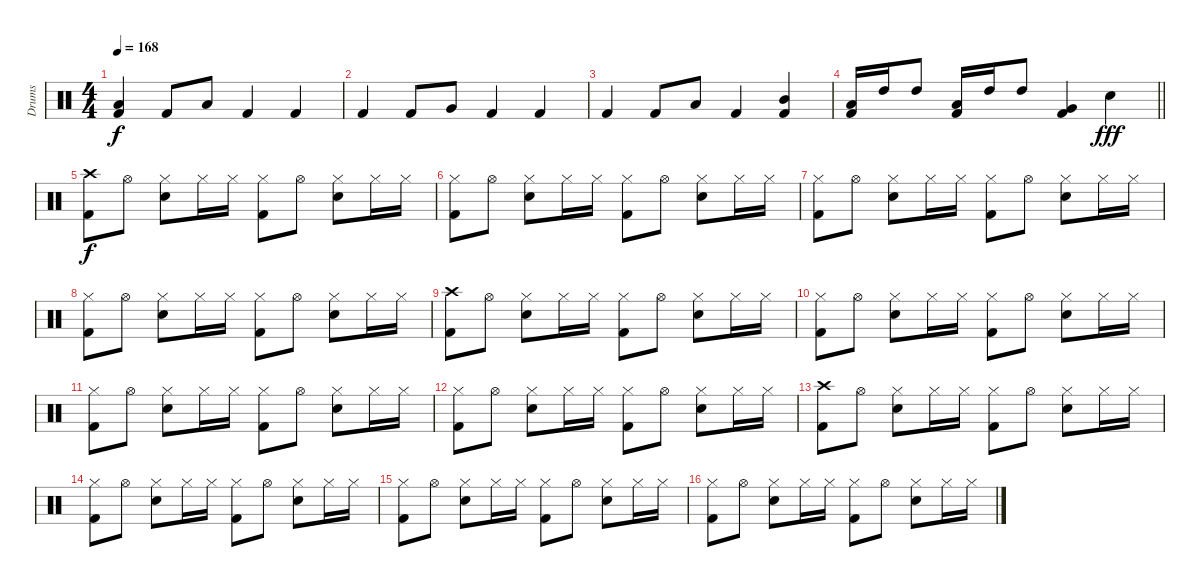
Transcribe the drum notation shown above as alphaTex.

\track ("Drums" "Drums") {instrument percussion}
\staff {score}
\articulation defaults
\ts (4 4)
\tempo 168
\clef neutral
\ks c
("Low Tom (hit)" "Kick (hit) 2").4{dy f} "Kick (hit) 2".8 "Low Tom (hit)".8 "Kick (hit) 2".4 "Kick (hit) 2".4 |
"Kick (hit) 2".4 "Kick (hit) 2".8 "Very Low Tom (hit)".8 "Kick (hit) 2".4 "Kick (hit) 2".4 |
"Kick (hit) 2".4 "Kick (hit) 2".8 "Low Tom (hit)".8 "Kick (hit) 2".4 ("Mid Tom (hit)" "Kick (hit) 2").4 |
\barLineRight lightlight
("Low Tom (hit)" "Kick (hit) 2").16 "High Tom (hit)".16 "High Tom (hit)".8 ("Low Tom (hit)" "Kick (hit) 2").16 "High Tom (hit)".16 "High Tom (hit)".8 ("Very Low Tom (hit)" "Kick (hit) 2").4 "Electric Snare (hit)".4{dy fff} |
("Crash high (hit)" "Kick (hit) 2").8{dy f} "Hi-Hat (open)".8 ("Hi-Hat (closed)" "Electric Snare (hit)").8 "Hi-Hat (closed)".16 "Hi-Hat (closed)".16 ("Hi-Hat (closed)" "Kick (hit) 2").8 "Hi-Hat (open)".8 ("Hi-Hat (closed)" "Electric Snare (hit)").8 "Hi-Hat (closed)".16 "Hi-Hat (closed)".16 |
("Hi-Hat (closed)" "Kick (hit) 2").8 "Hi-Hat (open)".8 ("Hi-Hat (closed)" "Electric Snare (hit)").8 "Hi-Hat (closed)".16 "Hi-Hat (closed)".16 ("Hi-Hat (closed)" "Kick (hit) 2").8 "Hi-Hat (open)".8 ("Hi-Hat (closed)" "Electric Snare (hit)").8 "Hi-Hat (closed)".16 "Hi-Hat (closed)".16 |
("Hi-Hat (closed)" "Kick (hit) 2").8 "Hi-Hat (open)".8 ("Hi-Hat (closed)" "Electric Snare (hit)").8 "Hi-Hat (closed)".16 "Hi-Hat (closed)".16 ("Hi-Hat (closed)" "Kick (hit) 2").8 "Hi-Hat (open)".8 ("Hi-Hat (closed)" "Electric Snare (hit)").8 "Hi-Hat (closed)".16 "Hi-Hat (closed)".16 |
("Hi-Hat (closed)" "Kick (hit) 2").8 "Hi-Hat (open)".8 ("Hi-Hat (closed)" "Electric Snare (hit)").8 "Hi-Hat (closed)".16 "Hi-Hat (closed)".16 ("Hi-Hat (closed)" "Kick (hit) 2").8 "Hi-Hat (open)".8 ("Hi-Hat (closed)" "Electric Snare (hit)").8 "Hi-Hat (closed)".16 "Hi-Hat (closed)".16 |
("Crash high (hit)" "Kick (hit) 2").8 "Hi-Hat (open)".8 ("Hi-Hat (closed)" "Electric Snare (hit)").8 "Hi-Hat (closed)".16 "Hi-Hat (closed)".16 ("Hi-Hat (closed)" "Kick (hit) 2").8 "Hi-Hat (open)".8 ("Hi-Hat (closed)" "Electric Snare (hit)").8 "Hi-Hat (closed)".16 "Hi-Hat (closed)".16 |
("Hi-Hat (closed)" "Kick (hit) 2").8 "Hi-Hat (open)".8 ("Hi-Hat (closed)" "Electric Snare (hit)").8 "Hi-Hat (closed)".16 "Hi-Hat (closed)".16 ("Hi-Hat (closed)" "Kick (hit) 2").8 "Hi-Hat (open)".8 ("Hi-Hat (closed)" "Electric Snare (hit)").8 "Hi-Hat (closed)".16 "Hi-Hat (closed)".16 |
("Hi-Hat (closed)" "Kick (hit) 2").8 "Hi-Hat (open)".8 ("Hi-Hat (closed)" "Electric Snare (hit)").8 "Hi-Hat (closed)".16 "Hi-Hat (closed)".16 ("Hi-Hat (closed)" "Kick (hit) 2").8 "Hi-Hat (open)".8 ("Hi-Hat (closed)" "Electric Snare (hit)").8 "Hi-Hat (closed)".16 "Hi-Hat (closed)".16 |
("Hi-Hat (closed)" "Kick (hit) 2").8 "Hi-Hat (open)".8 ("Hi-Hat (closed)" "Electric Snare (hit)").8 "Hi-Hat (closed)".16 "Hi-Hat (closed)".16 ("Hi-Hat (closed)" "Kick (hit) 2").8 "Hi-Hat (open)".8 ("Hi-Hat (closed)" "Electric Snare (hit)").8 "Hi-Hat (closed)".16 "Hi-Hat (closed)".16 |
("Crash high (hit)" "Kick (hit) 2").8 "Hi-Hat (open)".8 ("Hi-Hat (closed)" "Electric Snare (hit)").8 "Hi-Hat (closed)".16 "Hi-Hat (closed)".16 ("Hi-Hat (closed)" "Kick (hit) 2").8 "Hi-Hat (open)".8 ("Hi-Hat (closed)" "Electric Snare (hit)").8 "Hi-Hat (closed)".16 "Hi-Hat (closed)".16 |
("Hi-Hat (closed)" "Kick (hit) 2").8 "Hi-Hat (open)".8 ("Hi-Hat (closed)" "Electric Snare (hit)").8 "Hi-Hat (closed)".16 "Hi-Hat (closed)".16 ("Hi-Hat (closed)" "Kick (hit) 2").8 "Hi-Hat (open)".8 ("Hi-Hat (closed)" "Electric Snare (hit)").8 "Hi-Hat (closed)".16 "Hi-Hat (closed)".16 |
("Hi-Hat (closed)" "Kick (hit) 2").8 "Hi-Hat (open)".8 ("Hi-Hat (closed)" "Electric Snare (hit)").8 "Hi-Hat (closed)".16 "Hi-Hat (closed)".16 ("Hi-Hat (closed)" "Kick (hit) 2").8 "Hi-Hat (open)".8 ("Hi-Hat (closed)" "Electric Snare (hit)").8 "Hi-Hat (closed)".16 "Hi-Hat (closed)".16 |
("Hi-Hat (closed)" "Kick (hit) 2").8 "Hi-Hat (open)".8 ("Hi-Hat (closed)" "Electric Snare (hit)").8 "Hi-Hat (closed)".16 "Hi-Hat (closed)".16 ("Hi-Hat (closed)" "Kick (hit) 2").8 "Hi-Hat (open)".8 ("Hi-Hat (closed)" "Electric Snare (hit)").8 "Hi-Hat (closed)".16 "Hi-Hat (closed)".16
